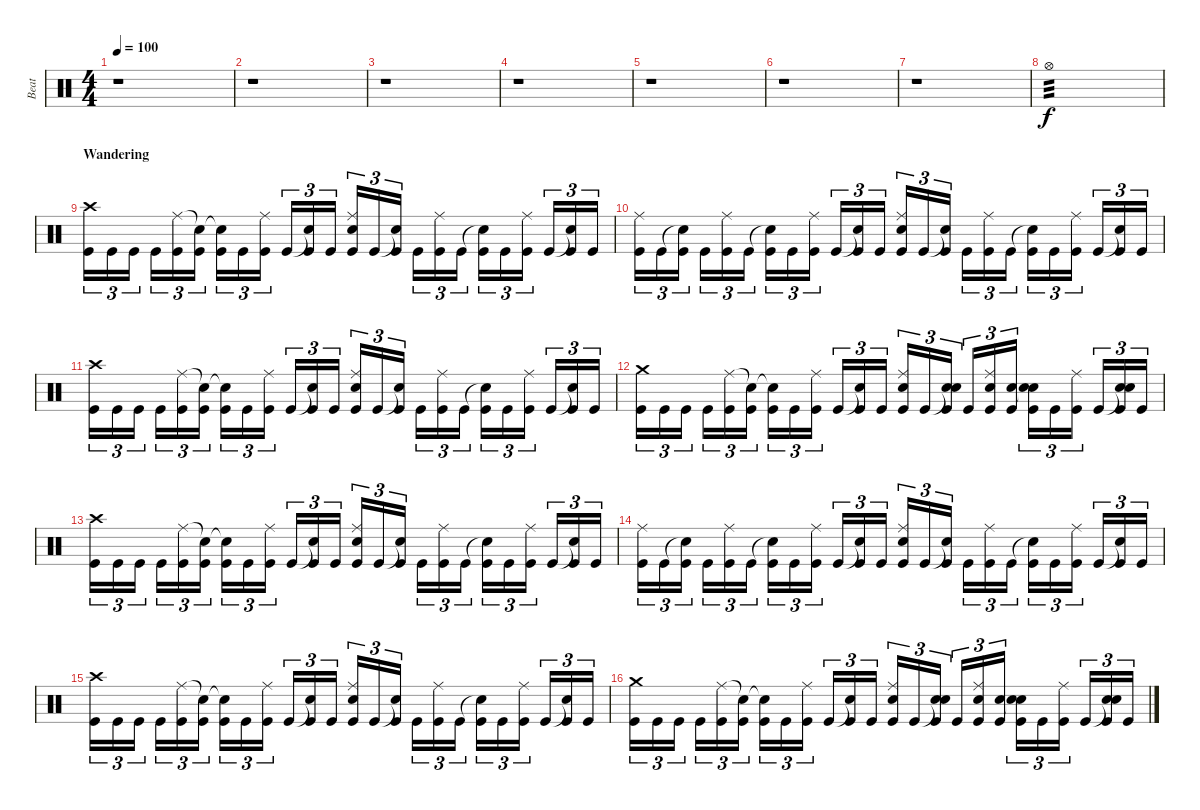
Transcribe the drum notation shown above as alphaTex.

\track ("Beat" "Beat") {instrument percussion}
\staff {score}
\articulation defaults
\ts (4 4)
\tempo 100
\clef neutral
\ks c
r.1{dy f} |
r.1 |
r.1 |
r.1 |
r.1 |
r.1 |
r.1{volume 6} |
"Hi-Hat (open)".1{tp 3 volume 14} |
\section ("" "Wandering")
("Crash high (hit)" "Kick (hit)").16{tu (3 2)} "Kick (hit)".16{tu (3 2)} "Kick (hit)".16{tu (3 2)} "Kick (hit)".16{tu (3 2)} ("Ride (middle)" "Kick (hit)").16{tu (3 2)} ("Snare (hit)"{t} "Kick (hit)").16{tu (3 2)} ("Snare (hit)"{t} "Kick (hit)").16{tu (3 2)} "Kick (hit)".16{tu (3 2)} ("Ride (middle)" "Kick (hit)").16{tu (3 2)} "Kick (hit)".16{tu (3 2)} ("Snare (hit)"{t} "Kick (hit)").16{tu (3 2)} "Kick (hit)".16{tu (3 2)} ("Ride (middle)" "Snare (hit) 2" "Kick (hit)").16{tu (3 2)} "Kick (hit)".16{tu (3 2)} ("Snare (hit)"{t} "Kick (hit)").16{tu (3 2)} "Kick (hit)".16{tu (3 2)} ("Ride (middle)" "Kick (hit)").16{tu (3 2)} "Kick (hit)".16{tu (3 2)} ("Snare (hit)"{t} "Kick (hit)").16{tu (3 2)} "Kick (hit)".16{tu (3 2)} ("Ride (middle)" "Kick (hit)").16{tu (3 2)} "Kick (hit)".16{tu (3 2)} ("Snare (hit)"{t} "Kick (hit)").16{tu (3 2)} "Kick (hit)".16{tu (3 2)} |
("Ride (middle)" "Kick (hit)").16{tu (3 2)} "Kick (hit)".16{tu (3 2)} ("Snare (hit)"{t} "Kick (hit)").16{tu (3 2)} "Kick (hit)".16{tu (3 2)} ("Ride (middle)" "Kick (hit)").16{tu (3 2)} "Kick (hit)".16{tu (3 2)} ("Snare (hit)"{t} "Kick (hit)").16{tu (3 2)} "Kick (hit)".16{tu (3 2)} ("Ride (middle)" "Kick (hit)").16{tu (3 2)} "Kick (hit)".16{tu (3 2)} ("Snare (hit)"{t} "Kick (hit)").16{tu (3 2)} "Kick (hit)".16{tu (3 2)} ("Ride (middle)" "Snare (hit) 2" "Kick (hit)").16{tu (3 2)} "Kick (hit)".16{tu (3 2)} ("Snare (hit)"{t} "Kick (hit)").16{tu (3 2)} "Kick (hit)".16{tu (3 2)} ("Ride (middle)" "Kick (hit)").16{tu (3 2)} "Kick (hit)".16{tu (3 2)} ("Snare (hit)"{t} "Kick (hit)").16{tu (3 2)} "Kick (hit)".16{tu (3 2)} ("Ride (middle)" "Kick (hit)").16{tu (3 2)} "Kick (hit)".16{tu (3 2)} ("Snare (hit)"{t} "Kick (hit)").16{tu (3 2)} "Kick (hit)".16{tu (3 2)} |
("Crash high (hit)" "Kick (hit)").16{tu (3 2)} "Kick (hit)".16{tu (3 2)} "Kick (hit)".16{tu (3 2)} "Kick (hit)".16{tu (3 2)} ("Ride (middle)" "Kick (hit)").16{tu (3 2)} ("Snare (hit)"{t} "Kick (hit)").16{tu (3 2)} ("Snare (hit)"{t} "Kick (hit)").16{tu (3 2)} "Kick (hit)".16{tu (3 2)} ("Ride (middle)" "Kick (hit)").16{tu (3 2)} "Kick (hit)".16{tu (3 2)} ("Snare (hit)"{t} "Kick (hit)").16{tu (3 2)} "Kick (hit)".16{tu (3 2)} ("Ride (middle)" "Snare (hit) 2" "Kick (hit)").16{tu (3 2)} "Kick (hit)".16{tu (3 2)} ("Snare (hit)"{t} "Kick (hit)").16{tu (3 2)} "Kick (hit)".16{tu (3 2)} ("Ride (middle)" "Kick (hit)").16{tu (3 2)} "Kick (hit)".16{tu (3 2)} ("Snare (hit)"{t} "Kick (hit)").16{tu (3 2)} "Kick (hit)".16{tu (3 2)} ("Ride (middle)" "Kick (hit)").16{tu (3 2)} "Kick (hit)".16{tu (3 2)} ("Snare (hit)"{t} "Kick (hit)").16{tu (3 2)} "Kick (hit)".16{tu (3 2)} |
("Crash medium (hit)" "Kick (hit)").16{tu (3 2)} "Kick (hit)".16{tu (3 2)} "Kick (hit)".16{tu (3 2)} "Kick (hit)".16{tu (3 2)} ("Ride (middle)" "Kick (hit)").16{tu (3 2)} ("Snare (hit)"{t} "Kick (hit)").16{tu (3 2)} ("Snare (hit)"{t} "Kick (hit)").16{tu (3 2)} "Kick (hit)".16{tu (3 2)} ("Ride (middle)" "Kick (hit)").16{tu (3 2)} "Kick (hit)".16{tu (3 2)} ("Snare (hit)"{t} "Kick (hit)").16{tu (3 2)} "Kick (hit)".16{tu (3 2)} ("Ride (middle)" "Snare (hit) 2" "Kick (hit)").16{tu (3 2)} "Kick (hit)".16{tu (3 2)} ("Snare (hit)"{t} "Snare (hit) 2" "Kick (hit)").16{tu (3 2)} "Kick (hit)".16{tu (3 2)} ("Ride (middle)" "Snare (hit) 2" "Kick (hit)").16{tu (3 2)} ("Snare (hit) 2" "Kick (hit)").16{tu (3 2)} ("Snare (hit)"{t} "Snare (hit) 2" "Kick (hit)").16{tu (3 2)} "Kick (hit)".16{tu (3 2)} ("Ride (middle)" "Kick (hit)").16{tu (3 2)} "Kick (hit)".16{tu (3 2)} ("Snare (hit)"{t} "Snare (hit) 2" "Kick (hit)").16{tu (3 2)} "Kick (hit)".16{tu (3 2)} |
("Crash high (hit)" "Kick (hit)").16{tu (3 2)} "Kick (hit)".16{tu (3 2)} "Kick (hit)".16{tu (3 2)} "Kick (hit)".16{tu (3 2)} ("Ride (middle)" "Kick (hit)").16{tu (3 2)} ("Snare (hit)"{t} "Kick (hit)").16{tu (3 2)} ("Snare (hit)"{t} "Kick (hit)").16{tu (3 2)} "Kick (hit)".16{tu (3 2)} ("Ride (middle)" "Kick (hit)").16{tu (3 2)} "Kick (hit)".16{tu (3 2)} ("Snare (hit)"{t} "Kick (hit)").16{tu (3 2)} "Kick (hit)".16{tu (3 2)} ("Ride (middle)" "Snare (hit) 2" "Kick (hit)").16{tu (3 2)} "Kick (hit)".16{tu (3 2)} ("Snare (hit)"{t} "Kick (hit)").16{tu (3 2)} "Kick (hit)".16{tu (3 2)} ("Ride (middle)" "Kick (hit)").16{tu (3 2)} "Kick (hit)".16{tu (3 2)} ("Snare (hit)"{t} "Kick (hit)").16{tu (3 2)} "Kick (hit)".16{tu (3 2)} ("Ride (middle)" "Kick (hit)").16{tu (3 2)} "Kick (hit)".16{tu (3 2)} ("Snare (hit)"{t} "Kick (hit)").16{tu (3 2)} "Kick (hit)".16{tu (3 2)} |
("Ride (middle)" "Kick (hit)").16{tu (3 2)} "Kick (hit)".16{tu (3 2)} ("Snare (hit)"{t} "Kick (hit)").16{tu (3 2)} "Kick (hit)".16{tu (3 2)} ("Ride (middle)" "Kick (hit)").16{tu (3 2)} "Kick (hit)".16{tu (3 2)} ("Snare (hit)"{t} "Kick (hit)").16{tu (3 2)} "Kick (hit)".16{tu (3 2)} ("Ride (middle)" "Kick (hit)").16{tu (3 2)} "Kick (hit)".16{tu (3 2)} ("Snare (hit)"{t} "Kick (hit)").16{tu (3 2)} "Kick (hit)".16{tu (3 2)} ("Ride (middle)" "Snare (hit) 2" "Kick (hit)").16{tu (3 2)} "Kick (hit)".16{tu (3 2)} ("Snare (hit)"{t} "Kick (hit)").16{tu (3 2)} "Kick (hit)".16{tu (3 2)} ("Ride (middle)" "Kick (hit)").16{tu (3 2)} "Kick (hit)".16{tu (3 2)} ("Snare (hit)"{t} "Kick (hit)").16{tu (3 2)} "Kick (hit)".16{tu (3 2)} ("Ride (middle)" "Kick (hit)").16{tu (3 2)} "Kick (hit)".16{tu (3 2)} ("Snare (hit)"{t} "Kick (hit)").16{tu (3 2)} "Kick (hit)".16{tu (3 2)} |
("Crash high (hit)" "Kick (hit)").16{tu (3 2)} "Kick (hit)".16{tu (3 2)} "Kick (hit)".16{tu (3 2)} "Kick (hit)".16{tu (3 2)} ("Ride (middle)" "Kick (hit)").16{tu (3 2)} ("Snare (hit)"{t} "Kick (hit)").16{tu (3 2)} ("Snare (hit)"{t} "Kick (hit)").16{tu (3 2)} "Kick (hit)".16{tu (3 2)} ("Ride (middle)" "Kick (hit)").16{tu (3 2)} "Kick (hit)".16{tu (3 2)} ("Snare (hit)"{t} "Kick (hit)").16{tu (3 2)} "Kick (hit)".16{tu (3 2)} ("Ride (middle)" "Snare (hit) 2" "Kick (hit)").16{tu (3 2)} "Kick (hit)".16{tu (3 2)} ("Snare (hit)"{t} "Kick (hit)").16{tu (3 2)} "Kick (hit)".16{tu (3 2)} ("Ride (middle)" "Kick (hit)").16{tu (3 2)} "Kick (hit)".16{tu (3 2)} ("Snare (hit)"{t} "Kick (hit)").16{tu (3 2)} "Kick (hit)".16{tu (3 2)} ("Ride (middle)" "Kick (hit)").16{tu (3 2)} "Kick (hit)".16{tu (3 2)} ("Snare (hit)"{t} "Kick (hit)").16{tu (3 2)} "Kick (hit)".16{tu (3 2)} |
("Crash medium (hit)" "Kick (hit)").16{tu (3 2)} "Kick (hit)".16{tu (3 2)} "Kick (hit)".16{tu (3 2)} "Kick (hit)".16{tu (3 2)} ("Ride (middle)" "Kick (hit)").16{tu (3 2)} ("Snare (hit)"{t} "Kick (hit)").16{tu (3 2)} ("Snare (hit)"{t} "Kick (hit)").16{tu (3 2)} "Kick (hit)".16{tu (3 2)} ("Ride (middle)" "Kick (hit)").16{tu (3 2)} "Kick (hit)".16{tu (3 2)} ("Snare (hit)"{t} "Kick (hit)").16{tu (3 2)} "Kick (hit)".16{tu (3 2)} ("Ride (middle)" "Snare (hit) 2" "Kick (hit)").16{tu (3 2)} "Kick (hit)".16{tu (3 2)} ("Snare (hit)"{t} "Snare (hit) 2" "Kick (hit)").16{tu (3 2)} "Kick (hit)".16{tu (3 2)} ("Ride (middle)" "Snare (hit) 2" "Kick (hit)").16{tu (3 2)} ("Snare (hit) 2" "Kick (hit)").16{tu (3 2)} ("Snare (hit)"{t} "Snare (hit) 2" "Kick (hit)").16{tu (3 2)} "Kick (hit)".16{tu (3 2)} ("Ride (middle)" "Kick (hit)").16{tu (3 2)} "Kick (hit)".16{tu (3 2)} ("Snare (hit)"{t} "Snare (hit) 2" "Kick (hit)").16{tu (3 2)} "Kick (hit)".16{tu (3 2)}
